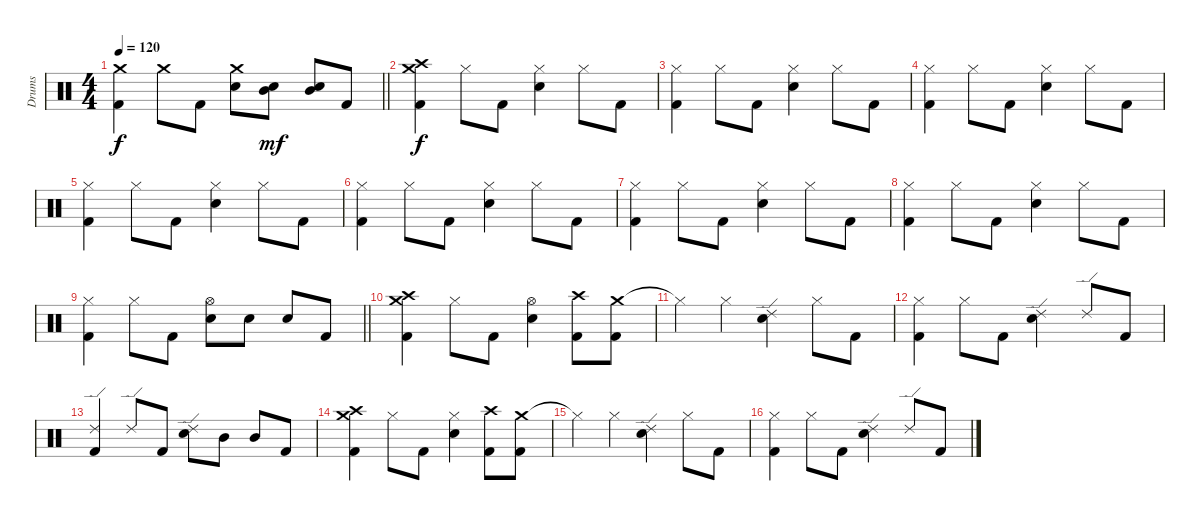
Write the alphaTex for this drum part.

\track ("Drums" "Drums") {instrument percussion}
\staff {score}
\articulation defaults
\ts (4 4)
\tempo 120
\clef neutral
\barLineRight lightlight
\ks c
("Crash medium (hit)" "Kick (hit) 2").4{dy f} "Crash medium (hit)".8 "Kick (hit) 2".8 ("Crash medium (hit)" "Electric Snare (hit)").8 ("Mid Tom (hit)" "Electric Snare (hit)").8{dy mf} ("Mid Tom (hit)" "Electric Snare (hit)").8 "Kick (hit) 2".8 |
("Crash high (hit)" "Crash medium (hit)" "Kick (hit) 2").4{dy f} "Hi-Hat (closed)".8 "Kick (hit) 2".8 ("Hi-Hat (closed)" "Electric Snare (hit)").4 "Hi-Hat (closed)".8 "Kick (hit) 2".8 |
("Hi-Hat (closed)" "Kick (hit) 2").4 "Hi-Hat (closed)".8 "Kick (hit) 2".8 ("Hi-Hat (closed)" "Electric Snare (hit)").4 "Hi-Hat (closed)".8 "Kick (hit) 2".8 |
("Hi-Hat (closed)" "Kick (hit) 2").4 "Hi-Hat (closed)".8 "Kick (hit) 2".8 ("Hi-Hat (closed)" "Electric Snare (hit)").4 "Hi-Hat (closed)".8 "Kick (hit) 2".8 |
("Hi-Hat (closed)" "Kick (hit) 2").4 "Hi-Hat (closed)".8 "Kick (hit) 2".8 ("Hi-Hat (closed)" "Electric Snare (hit)").4 "Hi-Hat (closed)".8 "Kick (hit) 2".8 |
("Hi-Hat (closed)" "Kick (hit) 2").4 "Hi-Hat (closed)".8 "Kick (hit) 2".8 ("Hi-Hat (closed)" "Electric Snare (hit)").4 "Hi-Hat (closed)".8 "Kick (hit) 2".8 |
("Hi-Hat (closed)" "Kick (hit) 2").4 "Hi-Hat (closed)".8 "Kick (hit) 2".8 ("Hi-Hat (closed)" "Electric Snare (hit)").4 "Hi-Hat (closed)".8 "Kick (hit) 2".8 |
("Hi-Hat (closed)" "Kick (hit) 2").4 "Hi-Hat (closed)".8 "Kick (hit) 2".8 ("Hi-Hat (closed)" "Electric Snare (hit)").4 "Hi-Hat (closed)".8 "Kick (hit) 2".8 |
\barLineRight lightlight
("Hi-Hat (closed)" "Kick (hit) 2").4 "Hi-Hat (closed)".8 "Kick (hit) 2".8 ("Hi-Hat (open)" "Electric Snare (hit)").8 "Electric Snare (hit)".8 "Electric Snare (hit)".8 "Kick (hit) 2".8 |
("Crash medium (hit)" "Crash high (hit)" "Kick (hit) 2").4 "Hi-Hat (closed)".8 "Kick (hit) 2".8 ("Hi-Hat (open)" "Electric Snare (hit)").4 ("Crash high (hit)" "Kick (hit) 2").8 ("Crash medium (hit)" "Kick (hit) 2").8 |
"Hi-Hat (closed)"{t}.4 "Hi-Hat (closed)".4 ("Ride (edge) 2" "Electric Snare (hit)").4 "Hi-Hat (closed)".8 "Kick (hit) 2".8 |
("Hi-Hat (closed)" "Kick (hit) 2").4 "Hi-Hat (closed)".8 "Kick (hit) 2".8 ("Ride (edge) 2" "Electric Snare (hit)").4 "Ride (edge) 2".8 "Kick (hit) 2".8 |
("Ride (edge) 2" "Kick (hit) 2").4 "Ride (edge) 2".8 "Kick (hit) 2".8 ("Ride (edge) 2" "Electric Snare (hit)").8 "Mid Tom (hit)".8 "Mid Tom (hit)".8 "Kick (hit) 2".8 |
("Crash medium (hit)" "Crash high (hit)" "Kick (hit) 2").4 "Hi-Hat (closed)".8 "Kick (hit) 2".8 ("Hi-Hat (closed)" "Electric Snare (hit)").4 ("Crash high (hit)" "Kick (hit) 2").8 ("Crash medium (hit)" "Kick (hit) 2").8 |
"Hi-Hat (closed)"{t}.4 "Hi-Hat (closed)".4 ("Ride (edge) 2" "Electric Snare (hit)").4 "Hi-Hat (closed)".8 "Kick (hit) 2".8 |
("Hi-Hat (closed)" "Kick (hit) 2").4 "Hi-Hat (closed)".8 "Kick (hit) 2".8 ("Ride (edge) 2" "Electric Snare (hit)").4 "Ride (edge) 2".8 "Kick (hit) 2".8
